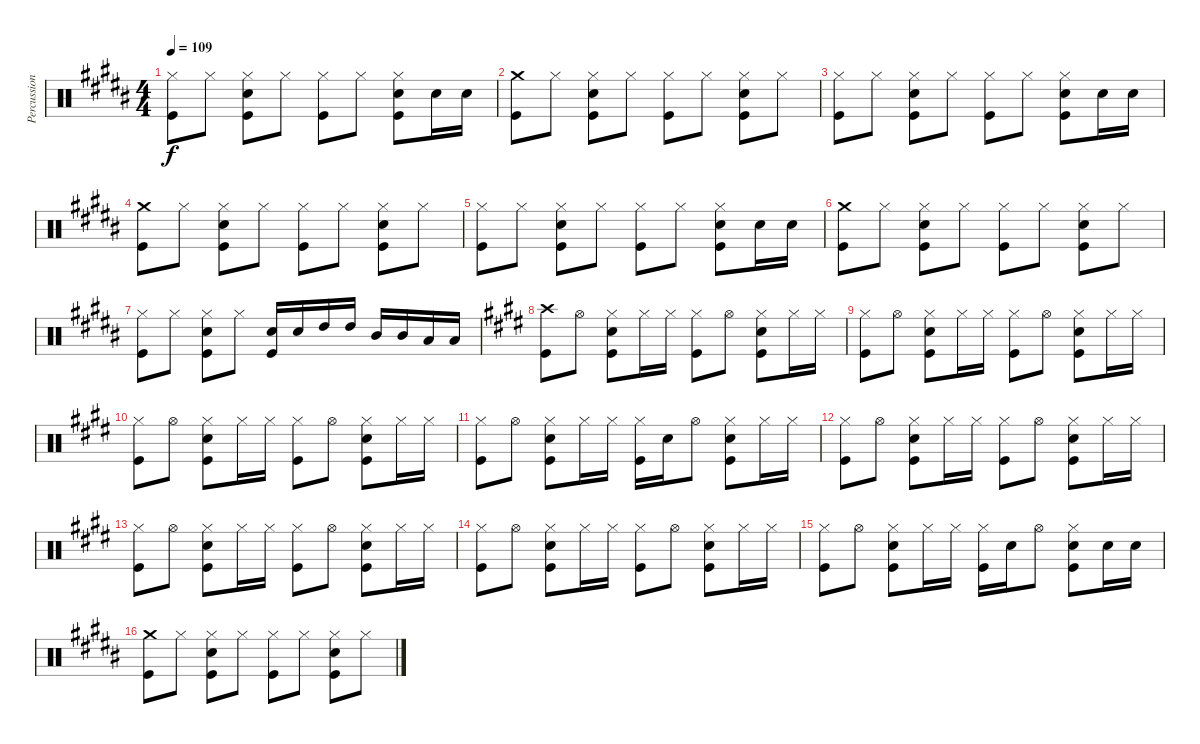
\track ("Percussion" "Percussion") {instrument percussion}
\staff {score}
\articulation defaults
\ts (4 4)
\tempo 109
\clef neutral
\ks b
("Hi-Hat (closed)" "Kick (hit)").8{dy f} "Hi-Hat (closed)".8 ("Hi-Hat (closed)" "Snare (hit) 2" "Kick (hit)").8 "Hi-Hat (closed)".8 ("Hi-Hat (closed)" "Kick (hit)").8 "Hi-Hat (closed)".8 ("Hi-Hat (closed)" "Snare (hit) 2" "Kick (hit)").8 "Snare (hit) 2".16 "Snare (hit) 2".16 |
("Crash medium (hit)" "Kick (hit)").8 "Hi-Hat (closed)".8 ("Hi-Hat (closed)" "Snare (hit) 2" "Kick (hit)").8 "Hi-Hat (closed)".8 ("Hi-Hat (closed)" "Kick (hit)").8 "Hi-Hat (closed)".8 ("Hi-Hat (closed)" "Snare (hit) 2" "Kick (hit)").8 "Hi-Hat (closed)".8 |
("Hi-Hat (closed)" "Kick (hit)").8 "Hi-Hat (closed)".8 ("Hi-Hat (closed)" "Snare (hit) 2" "Kick (hit)").8 "Hi-Hat (closed)".8 ("Hi-Hat (closed)" "Kick (hit)").8 "Hi-Hat (closed)".8 ("Hi-Hat (closed)" "Snare (hit) 2" "Kick (hit)").8 "Snare (hit) 2".16 "Snare (hit) 2".16 |
("Crash medium (hit)" "Kick (hit)").8 "Hi-Hat (closed)".8 ("Hi-Hat (closed)" "Snare (hit) 2" "Kick (hit)").8 "Hi-Hat (closed)".8 ("Hi-Hat (closed)" "Kick (hit)").8 "Hi-Hat (closed)".8 ("Hi-Hat (closed)" "Snare (hit) 2" "Kick (hit)").8 "Hi-Hat (closed)".8 |
("Hi-Hat (closed)" "Kick (hit)").8 "Hi-Hat (closed)".8 ("Hi-Hat (closed)" "Snare (hit) 2" "Kick (hit)").8 "Hi-Hat (closed)".8 ("Hi-Hat (closed)" "Kick (hit)").8 "Hi-Hat (closed)".8 ("Hi-Hat (closed)" "Snare (hit) 2" "Kick (hit)").8 "Snare (hit) 2".16 "Snare (hit) 2".16 |
("Crash medium (hit)" "Kick (hit)").8 "Hi-Hat (closed)".8 ("Hi-Hat (closed)" "Snare (hit) 2" "Kick (hit)").8 "Hi-Hat (closed)".8 ("Hi-Hat (closed)" "Kick (hit)").8 "Hi-Hat (closed)".8 ("Hi-Hat (closed)" "Snare (hit) 2" "Kick (hit)").8 "Hi-Hat (closed)".8 |
("Hi-Hat (closed)" "Kick (hit)").8 "Hi-Hat (closed)".8 ("Hi-Hat (closed)" "Snare (hit) 2" "Kick (hit)").8 "Hi-Hat (closed)".8 ("Snare (hit) 2" "Kick (hit)").16 "Snare (hit) 2".16 "High Tom (hit)".16 "High Tom (hit)".16 "Mid Tom (hit)".16 "Mid Tom (hit)".16 "Low Tom (hit)".16 "Low Tom (hit)".16 |
\ks e
("Crash high (hit)" "Kick (hit)").8 "Hi-Hat (open)".8 ("Hi-Hat (closed)" "Snare (hit) 2" "Kick (hit)").8 "Hi-Hat (closed)".16 "Hi-Hat (closed)".16 ("Hi-Hat (closed)" "Kick (hit)").8 "Hi-Hat (open)".8 ("Hi-Hat (closed)" "Snare (hit) 2" "Kick (hit)").8 "Hi-Hat (closed)".16 "Hi-Hat (closed)".16 |
("Hi-Hat (closed)" "Kick (hit)").8 "Hi-Hat (open)".8 ("Hi-Hat (closed)" "Snare (hit) 2" "Kick (hit)").8 "Hi-Hat (closed)".16 "Hi-Hat (closed)".16 ("Hi-Hat (closed)" "Kick (hit)").8 "Hi-Hat (open)".8 ("Hi-Hat (closed)" "Snare (hit) 2" "Kick (hit)").8 "Hi-Hat (closed)".16 "Hi-Hat (closed)".16 |
("Hi-Hat (closed)" "Kick (hit)").8 "Hi-Hat (open)".8 ("Hi-Hat (closed)" "Snare (hit) 2" "Kick (hit)").8 "Hi-Hat (closed)".16 "Hi-Hat (closed)".16 ("Hi-Hat (closed)" "Kick (hit)").8 "Hi-Hat (open)".8 ("Hi-Hat (closed)" "Snare (hit) 2" "Kick (hit)").8 "Hi-Hat (closed)".16 "Hi-Hat (closed)".16 |
("Hi-Hat (closed)" "Kick (hit)").8 "Hi-Hat (open)".8 ("Hi-Hat (closed)" "Snare (hit) 2" "Kick (hit)").8 "Hi-Hat (closed)".16 "Hi-Hat (closed)".16 ("Hi-Hat (closed)" "Kick (hit)").16 "Snare (hit) 2".16 "Hi-Hat (open)".8 ("Hi-Hat (closed)" "Snare (hit) 2" "Kick (hit)").8 "Hi-Hat (closed)".16 "Hi-Hat (closed)".16 |
("Hi-Hat (closed)" "Kick (hit)").8 "Hi-Hat (open)".8 ("Hi-Hat (closed)" "Snare (hit) 2" "Kick (hit)").8 "Hi-Hat (closed)".16 "Hi-Hat (closed)".16 ("Hi-Hat (closed)" "Kick (hit)").8 "Hi-Hat (open)".8 ("Hi-Hat (closed)" "Snare (hit) 2" "Kick (hit)").8 "Hi-Hat (closed)".16 "Hi-Hat (closed)".16 |
("Hi-Hat (closed)" "Kick (hit)").8 "Hi-Hat (open)".8 ("Hi-Hat (closed)" "Snare (hit) 2" "Kick (hit)").8 "Hi-Hat (closed)".16 "Hi-Hat (closed)".16 ("Hi-Hat (closed)" "Kick (hit)").8 "Hi-Hat (open)".8 ("Hi-Hat (closed)" "Snare (hit) 2" "Kick (hit)").8 "Hi-Hat (closed)".16 "Hi-Hat (closed)".16 |
("Hi-Hat (closed)" "Kick (hit)").8 "Hi-Hat (open)".8 ("Hi-Hat (closed)" "Snare (hit) 2" "Kick (hit)").8 "Hi-Hat (closed)".16 "Hi-Hat (closed)".16 ("Hi-Hat (closed)" "Kick (hit)").8 "Hi-Hat (open)".8 ("Hi-Hat (closed)" "Snare (hit) 2" "Kick (hit)").8 "Hi-Hat (closed)".16 "Hi-Hat (closed)".16 |
("Hi-Hat (closed)" "Kick (hit)").8 "Hi-Hat (open)".8 ("Hi-Hat (closed)" "Snare (hit) 2" "Kick (hit)").8 "Hi-Hat (closed)".16 "Hi-Hat (closed)".16 ("Hi-Hat (closed)" "Kick (hit)").16 "Snare (hit) 2".16 "Hi-Hat (open)".8 ("Hi-Hat (closed)" "Snare (hit) 2" "Kick (hit)").8 "Snare (hit) 2".16 "Snare (hit) 2".16 |
\ks b
("Crash medium (hit)" "Kick (hit)").8 "Hi-Hat (closed)".8 ("Hi-Hat (closed)" "Snare (hit) 2" "Kick (hit)").8 "Hi-Hat (closed)".8 ("Hi-Hat (closed)" "Kick (hit)").8 "Hi-Hat (closed)".8 ("Hi-Hat (closed)" "Snare (hit) 2" "Kick (hit)").8 "Hi-Hat (closed)".8
